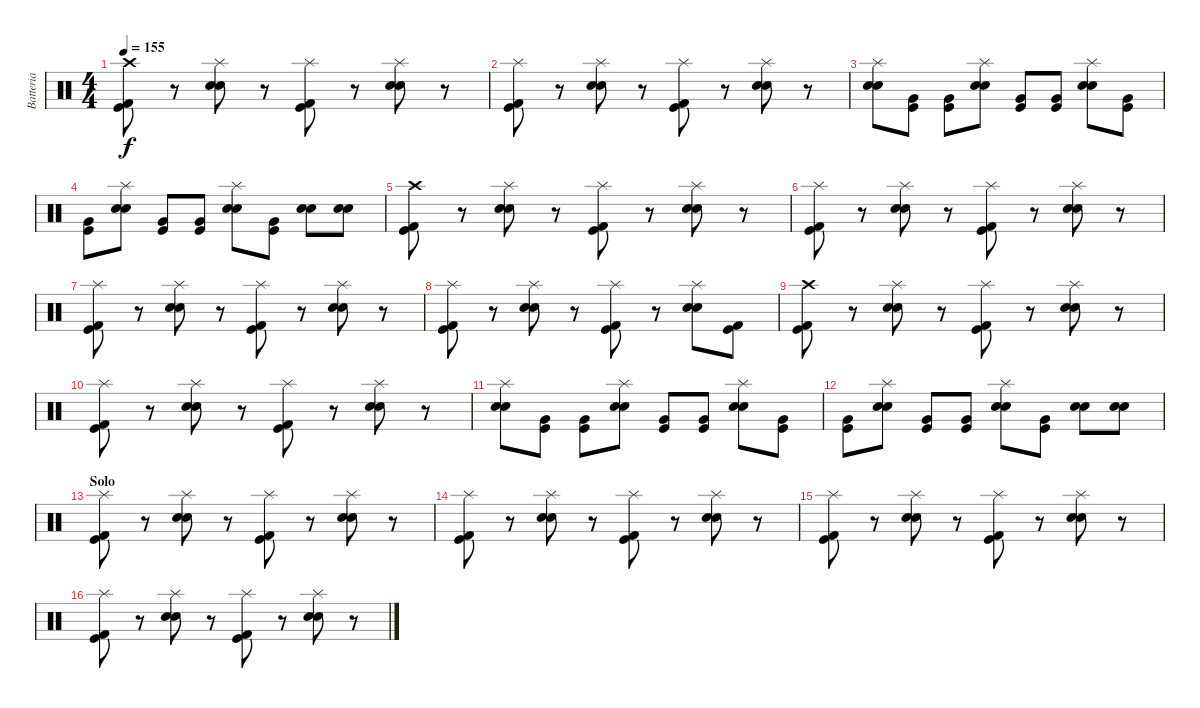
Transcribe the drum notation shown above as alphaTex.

\track ("Batteria" "Batteria") {instrument percussion}
\staff {score}
\articulation defaults
\ts (4 4)
\tempo 155
\clef neutral
\ks c
("Kick (hit)" "Kick (hit) 2" "Crash high (hit)").8{dy f} r.8 ("Electric Snare (hit)" "Snare (hit) 2" "Splash (hit)").8 r.8 ("Kick (hit)" "Kick (hit) 2" "Splash (hit)").8 r.8 ("Electric Snare (hit)" "Snare (hit) 2" "Splash (hit)").8 r.8 |
("Kick (hit)" "Kick (hit) 2" "Splash (hit)").8 r.8 ("Electric Snare (hit)" "Snare (hit) 2" "Splash (hit)").8 r.8 ("Kick (hit)" "Kick (hit) 2" "Splash (hit)").8 r.8 ("Electric Snare (hit)" "Snare (hit) 2" "Splash (hit)").8 r.8 |
("Electric Snare (hit)" "Snare (hit) 2" "Splash (hit)").8 ("Kick (hit)" "Very Low Tom (hit)").8 ("Kick (hit)" "Very Low Tom (hit)").8 ("Electric Snare (hit)" "Snare (hit) 2" "Splash (hit)").8 ("Kick (hit)" "Very Low Tom (hit)").8 ("Kick (hit)" "Very Low Tom (hit)").8 ("Electric Snare (hit)" "Snare (hit) 2" "Splash (hit)").8 ("Kick (hit)" "Very Low Tom (hit)").8 |
("Kick (hit)" "Very Low Tom (hit)").8 ("Electric Snare (hit)" "Snare (hit) 2" "Splash (hit)").8 ("Kick (hit)" "Very Low Tom (hit)").8 ("Kick (hit)" "Very Low Tom (hit)").8 ("Electric Snare (hit)" "Snare (hit) 2" "Splash (hit)").8 ("Kick (hit)" "Very Low Tom (hit)").8 ("Electric Snare (hit)" "Snare (hit) 2").8 ("Electric Snare (hit)" "Snare (hit) 2").8 |
("Kick (hit)" "Kick (hit) 2" "Crash high (hit)").8 r.8 ("Electric Snare (hit)" "Snare (hit) 2" "Splash (hit)").8 r.8 ("Kick (hit)" "Kick (hit) 2" "Splash (hit)").8 r.8 ("Electric Snare (hit)" "Snare (hit) 2" "Splash (hit)").8 r.8 |
("Kick (hit)" "Kick (hit) 2" "Splash (hit)").8 r.8 ("Electric Snare (hit)" "Snare (hit) 2" "Splash (hit)").8 r.8 ("Kick (hit)" "Kick (hit) 2" "Splash (hit)").8 r.8 ("Electric Snare (hit)" "Snare (hit) 2" "Splash (hit)").8 r.8 |
("Kick (hit)" "Kick (hit) 2" "Splash (hit)").8 r.8 ("Electric Snare (hit)" "Snare (hit) 2" "Splash (hit)").8 r.8 ("Kick (hit)" "Kick (hit) 2" "Splash (hit)").8 r.8 ("Electric Snare (hit)" "Snare (hit) 2" "Splash (hit)").8 r.8 |
("Kick (hit)" "Kick (hit) 2" "Splash (hit)").8 r.8 ("Electric Snare (hit)" "Snare (hit) 2" "Splash (hit)").8 r.8 ("Kick (hit)" "Kick (hit) 2" "Splash (hit)").8 r.8 ("Electric Snare (hit)" "Snare (hit) 2" "Splash (hit)").8 ("Kick (hit)" "Kick (hit) 2").8 |
("Kick (hit)" "Kick (hit) 2" "Crash high (hit)").8 r.8 ("Electric Snare (hit)" "Snare (hit) 2" "Splash (hit)").8 r.8 ("Kick (hit)" "Kick (hit) 2" "Splash (hit)").8 r.8 ("Electric Snare (hit)" "Snare (hit) 2" "Splash (hit)").8 r.8 |
("Kick (hit)" "Kick (hit) 2" "Splash (hit)").8 r.8 ("Electric Snare (hit)" "Snare (hit) 2" "Splash (hit)").8 r.8 ("Kick (hit)" "Kick (hit) 2" "Splash (hit)").8 r.8 ("Electric Snare (hit)" "Snare (hit) 2" "Splash (hit)").8 r.8 |
("Electric Snare (hit)" "Snare (hit) 2" "Splash (hit)").8 ("Kick (hit)" "Very Low Tom (hit)").8 ("Kick (hit)" "Very Low Tom (hit)").8 ("Electric Snare (hit)" "Snare (hit) 2" "Splash (hit)").8 ("Kick (hit)" "Very Low Tom (hit)").8 ("Kick (hit)" "Very Low Tom (hit)").8 ("Electric Snare (hit)" "Snare (hit) 2" "Splash (hit)").8 ("Kick (hit)" "Very Low Tom (hit)").8 |
("Kick (hit)" "Very Low Tom (hit)").8 ("Electric Snare (hit)" "Snare (hit) 2" "Splash (hit)").8 ("Kick (hit)" "Very Low Tom (hit)").8 ("Kick (hit)" "Very Low Tom (hit)").8 ("Electric Snare (hit)" "Snare (hit) 2" "Splash (hit)").8 ("Kick (hit)" "Very Low Tom (hit)").8 ("Electric Snare (hit)" "Snare (hit) 2").8 ("Electric Snare (hit)" "Snare (hit) 2").8 |
\section ("" "Solo")
("Kick (hit)" "Kick (hit) 2" "Splash (hit)").8 r.8 ("Electric Snare (hit)" "Snare (hit) 2" "Splash (hit)").8 r.8 ("Kick (hit)" "Kick (hit) 2" "Splash (hit)").8 r.8 ("Electric Snare (hit)" "Snare (hit) 2" "Splash (hit)").8 r.8 |
("Kick (hit)" "Kick (hit) 2" "Splash (hit)").8 r.8 ("Electric Snare (hit)" "Snare (hit) 2" "Splash (hit)").8 r.8 ("Kick (hit)" "Kick (hit) 2" "Splash (hit)").8 r.8 ("Electric Snare (hit)" "Snare (hit) 2" "Splash (hit)").8 r.8 |
("Kick (hit)" "Kick (hit) 2" "Splash (hit)").8 r.8 ("Electric Snare (hit)" "Snare (hit) 2" "Splash (hit)").8 r.8 ("Kick (hit)" "Kick (hit) 2" "Splash (hit)").8 r.8 ("Electric Snare (hit)" "Snare (hit) 2" "Splash (hit)").8 r.8 |
("Kick (hit)" "Kick (hit) 2" "Splash (hit)").8 r.8 ("Electric Snare (hit)" "Snare (hit) 2" "Splash (hit)").8 r.8 ("Kick (hit)" "Kick (hit) 2" "Splash (hit)").8 r.8 ("Electric Snare (hit)" "Snare (hit) 2" "Splash (hit)").8 r.8
